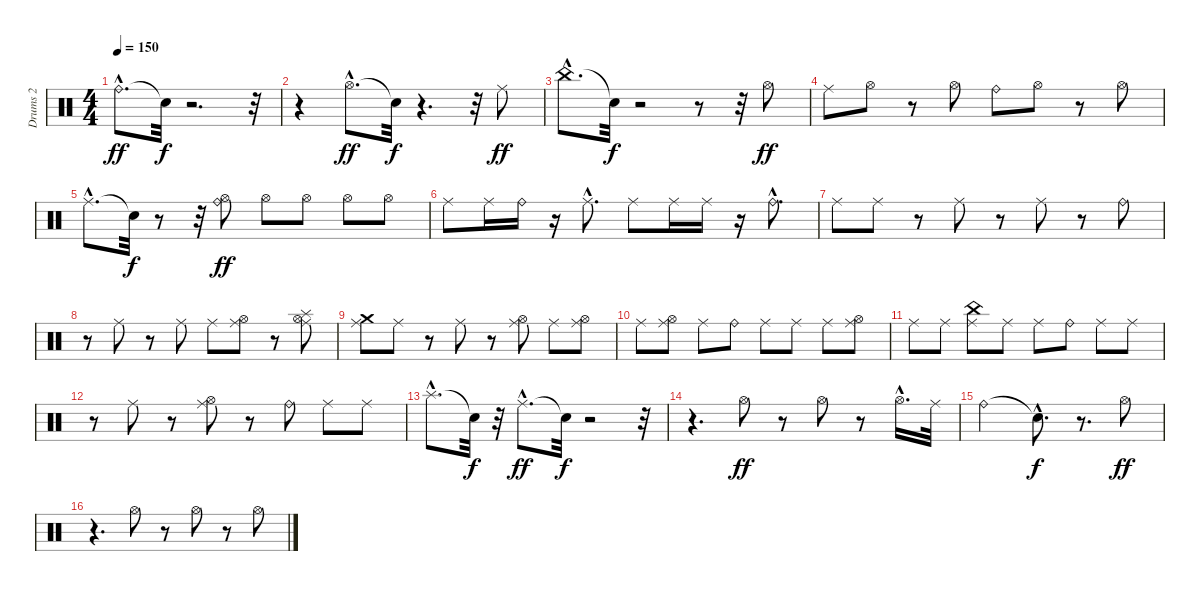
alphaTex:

\track ("Drums 2" "Drums 2") {instrument percussion}
\staff {score}
\articulation defaults
\ts (4 4)
\tempo 150
\clef neutral
\ks c "Ride (bell)"{hac}.8{d dy ff} "Snare (hit)"{t}.32{dy f}
r.2{d} r.32 |
r.4 "Hi-Hat (open)"{hac}.8{d dy ff} "Snare (hit)"{t}.32{dy f} r.4{d} r.32 "Ride (middle)".8{dy ff} |
"China (hit)"{hac}.8{d} "Snare (hit)"{t}.32{dy f} r.2 r.8 r.32 "Hi-Hat (open)".8{dy ff} |
"Ride (middle)".8 "Hi-Hat (open)".8 r.8 "Hi-Hat (open)".8 "Ride (bell)".8 "Hi-Hat (open)".8 r.8 "Hi-Hat (open)".8 |
"Ride (middle)"{hac}.8{d} "Snare (hit)"{t}.32{dy f} r.8 r.32 ("Hi-Hat (open)" "Ride (bell)").8{dy ff} "Hi-Hat (open)".8 "Hi-Hat (open)".8 "Hi-Hat (open)".8 "Hi-Hat (open)".8 |
"Ride (middle)".8 "Ride (middle)".16 "Ride (bell)".16 r.16 "Ride (middle)"{hac}.8{d} "Ride (middle)".8 "Ride (middle)".16 "Ride (middle)".16 r.16 "Ride (bell)"{hac}.8{d} |
"Ride (middle)".8 "Ride (middle)".8 r.8 "Ride (middle)".8 r.8 "Ride (middle)".8 r.8 "Ride (bell)".8 |
r.8 "Ride (middle)".8 r.8 "Ride (middle)".8 "Ride (middle)".8 ("Hi-Hat (open)" "Ride (middle)").8 r.8 ("Hi-Hat (open)" "Ride (middle)" "Splash (hit)").8 |
("Ride (middle)" "Crash medium (hit)").8 "Ride (middle)".8 r.8 "Ride (middle)".8 r.8 ("Hi-Hat (open)" "Ride (middle)").8 "Ride (middle)".8 ("Hi-Hat (open)" "Ride (middle)").8 |
"Ride (middle)".8 ("Hi-Hat (open)" "Ride (middle)").8 "Ride (middle)".8 "Ride (bell)".8 "Ride (middle)".8 "Ride (middle)".8 "Ride (middle)".8 ("Hi-Hat (open)" "Ride (middle)").8 |
"Ride (middle)".8 "Ride (middle)".8 ("Ride (middle)" "China (hit)").8 "Ride (middle)".8 "Ride (middle)".8 "Ride (bell)".8 "Ride (middle)".8 "Ride (middle)".8 |
r.8 "Ride (middle)".8 r.8 ("Hi-Hat (open)" "Ride (middle)").8 r.8 "Ride (bell)".8 "Ride (middle)".8 "Ride (middle)".8 |
"Splash (hit)"{hac}.8{d} "Snare (hit)"{t}.32{dy f} r.32 "Ride (middle)"{hac}.8{d dy ff} "Snare (hit)"{t}.32{dy f} r.2 r.32 |
r.4{d} "Hi-Hat (open)".8{dy ff} r.8 "Hi-Hat (open)".8 r.8 "Hi-Hat (open)"{hac}.16{d} "Ride (middle)".32 |
"Ride (bell)".2 "Snare (hit)"{hac t}.8{d dy f} r.8{d} "Hi-Hat (open)".8{dy ff} |
r.4{d} "Hi-Hat (open)".8 r.8 "Hi-Hat (open)".8 r.8 "Hi-Hat (open)".8
